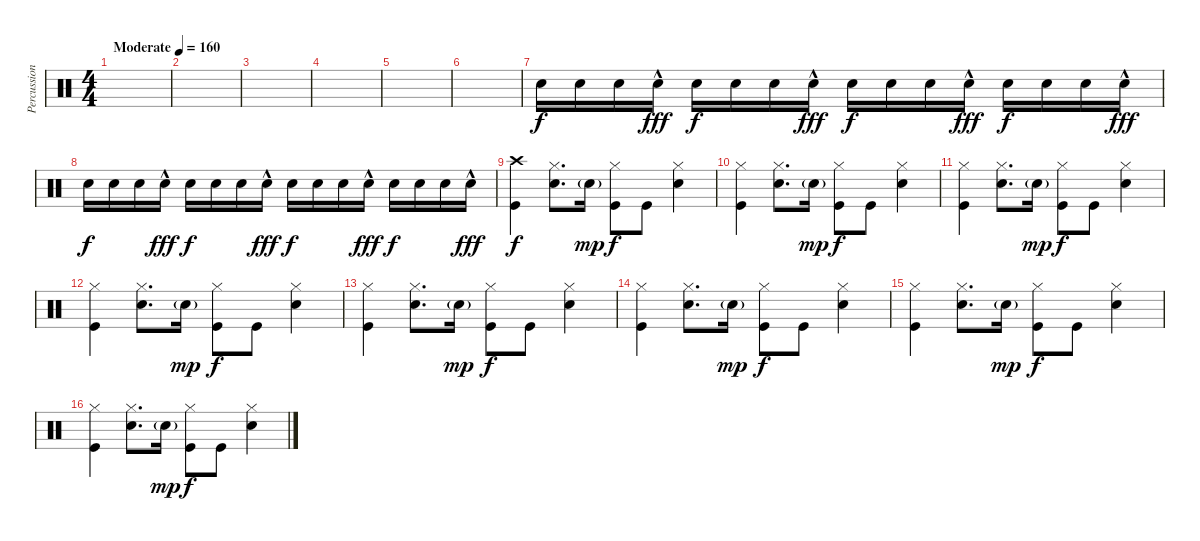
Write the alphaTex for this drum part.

\track ("Percussion" "Percussion") {instrument percussion}
\staff {score}
\articulation defaults
\ts (4 4)
\tempo (160 "Moderate")
\clef neutral
\ks c
|
|
|
|
|
|
"Snare (hit) 2".16 "Snare (hit) 2".16 "Snare (hit) 2".16 "Snare (hit) 2"{hac}.16{dy fff} "Snare (hit) 2".16{dy f} "Snare (hit) 2".16 "Snare (hit) 2".16 "Snare (hit) 2"{hac}.16{dy fff} "Snare (hit) 2".16{dy f} "Snare (hit) 2".16 "Snare (hit) 2".16 "Snare (hit) 2"{hac}.16{dy fff} "Snare (hit) 2".16{dy f} "Snare (hit) 2".16 "Snare (hit) 2".16 "Snare (hit) 2"{hac}.16{dy fff} |
"Snare (hit) 2".16{dy f} "Snare (hit) 2".16 "Snare (hit) 2".16 "Snare (hit) 2"{hac}.16{dy fff} "Snare (hit) 2".16{dy f} "Snare (hit) 2".16 "Snare (hit) 2".16 "Snare (hit) 2"{hac}.16{dy fff} "Snare (hit) 2".16{dy f} "Snare (hit) 2".16 "Snare (hit) 2".16 "Snare (hit) 2"{hac}.16{dy fff} "Snare (hit) 2".16{dy f} "Snare (hit) 2".16 "Snare (hit) 2".16 "Snare (hit) 2"{hac}.16{dy fff} |
("Kick (hit)" "Crash high (hit)").4{dy f} ("Snare (hit) 2" "Hi-Hat (closed)").8{d} "Snare (hit) 2"{g}.16{dy mp} ("Kick (hit)" "Hi-Hat (closed)").8{dy f} "Kick (hit)".8 ("Snare (hit) 2" "Hi-Hat (closed)").4 |
("Kick (hit)" "Hi-Hat (closed)").4 ("Snare (hit) 2" "Hi-Hat (closed)").8{d} "Snare (hit) 2"{g}.16{dy mp} ("Kick (hit)" "Hi-Hat (closed)").8{dy f} "Kick (hit)".8 ("Snare (hit) 2" "Hi-Hat (closed)").4 |
("Kick (hit)" "Hi-Hat (closed)").4 ("Snare (hit) 2" "Hi-Hat (closed)").8{d} "Snare (hit) 2"{g}.16{dy mp} ("Kick (hit)" "Hi-Hat (closed)").8{dy f} "Kick (hit)".8 ("Snare (hit) 2" "Hi-Hat (closed)").4 |
("Kick (hit)" "Hi-Hat (closed)").4 ("Snare (hit) 2" "Hi-Hat (closed)").8{d} "Snare (hit) 2"{g}.16{dy mp} ("Kick (hit)" "Hi-Hat (closed)").8{dy f} "Kick (hit)".8 ("Snare (hit) 2" "Hi-Hat (closed)").4 |
("Kick (hit)" "Hi-Hat (closed)").4 ("Snare (hit) 2" "Hi-Hat (closed)").8{d} "Snare (hit) 2"{g}.16{dy mp} ("Kick (hit)" "Hi-Hat (closed)").8{dy f} "Kick (hit)".8 ("Snare (hit) 2" "Hi-Hat (closed)").4 |
("Kick (hit)" "Hi-Hat (closed)").4 ("Snare (hit) 2" "Hi-Hat (closed)").8{d} "Snare (hit) 2"{g}.16{dy mp} ("Kick (hit)" "Hi-Hat (closed)").8{dy f} "Kick (hit)".8 ("Snare (hit) 2" "Hi-Hat (closed)").4 |
("Kick (hit)" "Hi-Hat (closed)").4 ("Snare (hit) 2" "Hi-Hat (closed)").8{d} "Snare (hit) 2"{g}.16{dy mp} ("Kick (hit)" "Hi-Hat (closed)").8{dy f} "Kick (hit)".8 ("Snare (hit) 2" "Hi-Hat (closed)").4 |
("Kick (hit)" "Hi-Hat (closed)").4 ("Snare (hit) 2" "Hi-Hat (closed)").8{d} "Snare (hit) 2"{g}.16{dy mp} ("Kick (hit)" "Hi-Hat (closed)").8{dy f} "Kick (hit)".8 ("Snare (hit) 2" "Hi-Hat (closed)").4
